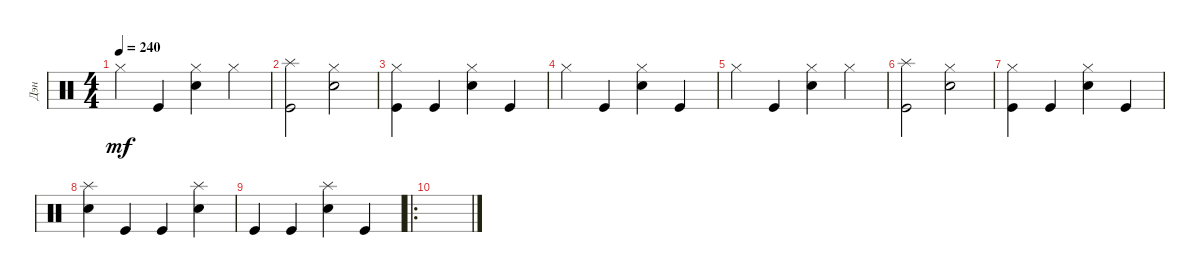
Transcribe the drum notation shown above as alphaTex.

\track ("Дэн" "Дэн") {instrument percussion}
\staff {score}
\articulation defaults
\ts (4 4)
\tempo 240
\clef neutral
\ks c "Hi-Hat (closed)".4{dy mf} "Kick (hit)".4
("Snare (hit) 2" "Hi-Hat (closed)").4 "Hi-Hat (closed)".4 |
("Kick (hit)" "Splash (hit)").2 ("Snare (hit) 2" "Hi-Hat (closed)").2 |
("Kick (hit)" "Hi-Hat (closed)").4 "Kick (hit)".4 ("Snare (hit) 2" "Hi-Hat (closed)").4 "Kick (hit)".4 |
"Hi-Hat (closed)".4 "Kick (hit)".4 ("Snare (hit) 2" "Hi-Hat (closed)").4 "Kick (hit)".4 |
"Hi-Hat (closed)".4 "Kick (hit)".4 ("Snare (hit) 2" "Hi-Hat (closed)").4 "Hi-Hat (closed)".4 |
("Kick (hit)" "Splash (hit)").2 ("Snare (hit) 2" "Hi-Hat (closed)").2 |
("Kick (hit)" "Hi-Hat (closed)").4 "Kick (hit)".4 ("Snare (hit) 2" "Hi-Hat (closed)").4 "Kick (hit)".4 |
("Splash (hit)" "Snare (hit) 2").4 "Kick (hit)".4 "Kick (hit)".4 ("Snare (hit) 2" "Splash (hit)").4 |
"Kick (hit)".4 "Kick (hit)".4 ("Snare (hit) 2" "Splash (hit)").4 "Kick (hit)".4 |
\ro
